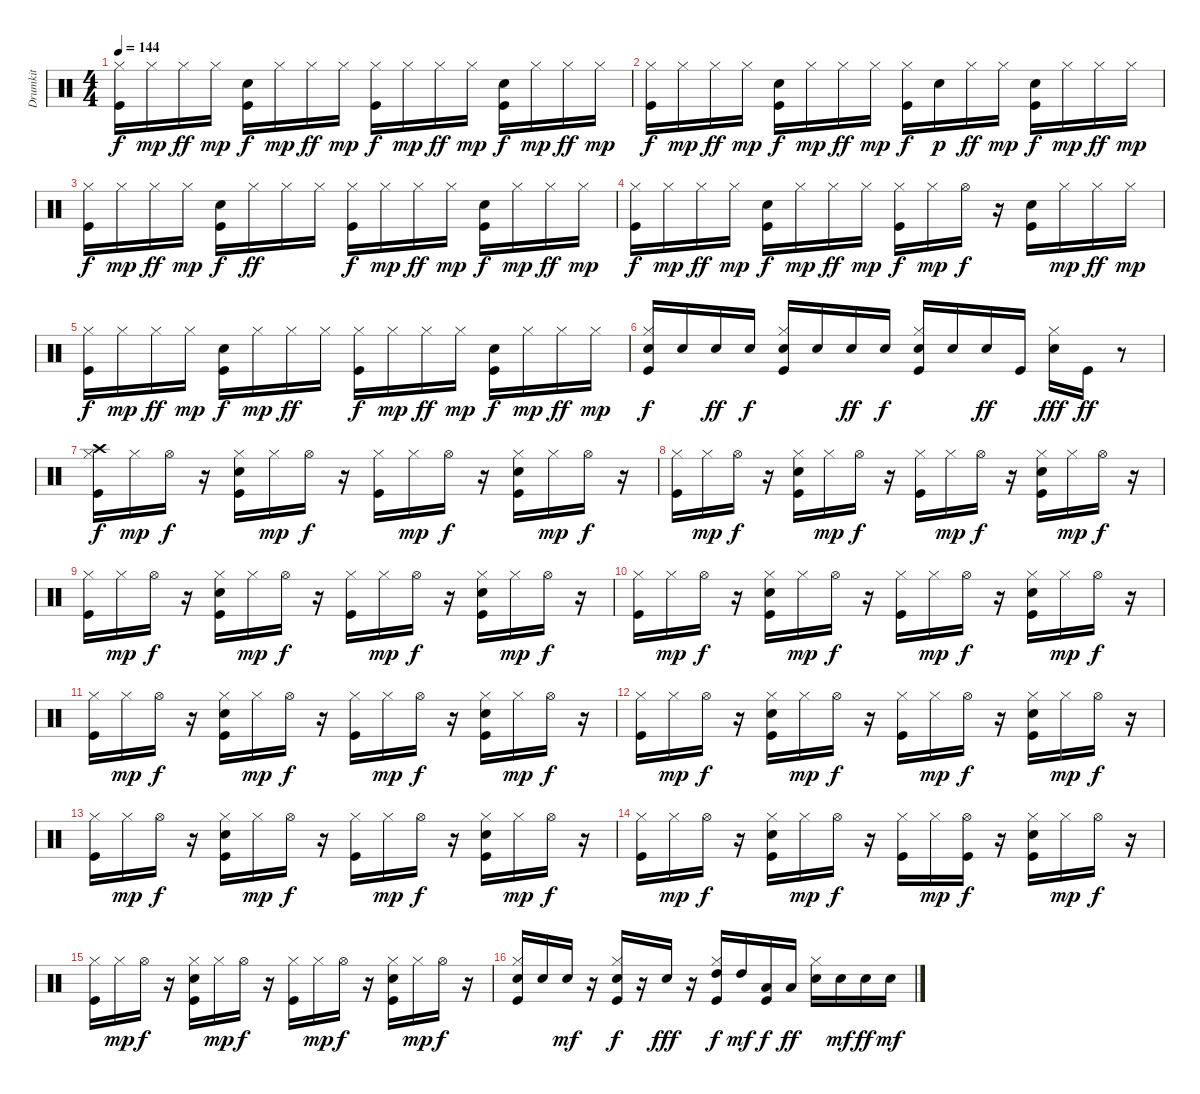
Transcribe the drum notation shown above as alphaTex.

\track ("Drumkit" "Drumkit") {instrument percussion}
\staff {score}
\articulation defaults
\ts (4 4)
\tempo 144
\clef neutral
\ks c
("Kick (hit)" "Hi-Hat (closed)").16{dy f} "Hi-Hat (closed)".16{dy mp} "Hi-Hat (closed)".16{dy ff} "Hi-Hat (closed)".16{dy mp} ("Kick (hit)" "Snare (hit) 2").16{dy f} "Hi-Hat (closed)".16{dy mp} "Hi-Hat (closed)".16{dy ff} "Hi-Hat (closed)".16{dy mp} ("Kick (hit)" "Hi-Hat (closed)").16{dy f} "Hi-Hat (closed)".16{dy mp} "Hi-Hat (closed)".16{dy ff} "Hi-Hat (closed)".16{dy mp} ("Kick (hit)" "Snare (hit) 2").16{dy f} "Hi-Hat (closed)".16{dy mp} "Hi-Hat (closed)".16{dy ff} "Hi-Hat (closed)".16{dy mp} |
("Kick (hit)" "Hi-Hat (closed)").16{dy f} "Hi-Hat (closed)".16{dy mp} "Hi-Hat (closed)".16{dy ff} "Hi-Hat (closed)".16{dy mp} ("Kick (hit)" "Snare (hit) 2").16{dy f} "Hi-Hat (closed)".16{dy mp} "Hi-Hat (closed)".16{dy ff} "Hi-Hat (closed)".16{dy mp} ("Kick (hit)" "Hi-Hat (closed)").16{dy f} "Snare (hit) 2".16{dy p} "Hi-Hat (closed)".16{dy ff} "Hi-Hat (closed)".16{dy mp} ("Kick (hit)" "Snare (hit) 2").16{dy f} "Hi-Hat (closed)".16{dy mp} "Hi-Hat (closed)".16{dy ff} "Hi-Hat (closed)".16{dy mp} |
("Kick (hit)" "Hi-Hat (closed)").16{dy f} "Hi-Hat (closed)".16{dy mp} "Hi-Hat (closed)".16{dy ff} "Hi-Hat (closed)".16{dy mp} ("Kick (hit)" "Snare (hit) 2").16{dy f} "Hi-Hat (closed)".16{dy ff} "Hi-Hat (closed)".16 "Hi-Hat (closed)".16 ("Kick (hit)" "Hi-Hat (closed)").16{dy f} "Hi-Hat (closed)".16{dy mp} "Hi-Hat (closed)".16{dy ff} "Hi-Hat (closed)".16{dy mp} ("Kick (hit)" "Snare (hit) 2").16{dy f} "Hi-Hat (closed)".16{dy mp} "Hi-Hat (closed)".16{dy ff} "Hi-Hat (closed)".16{dy mp} |
("Kick (hit)" "Hi-Hat (closed)").16{dy f} "Hi-Hat (closed)".16{dy mp} "Hi-Hat (closed)".16{dy ff} "Hi-Hat (closed)".16{dy mp} ("Kick (hit)" "Snare (hit) 2").16{dy f} "Hi-Hat (closed)".16{dy mp} "Hi-Hat (closed)".16{dy ff} "Hi-Hat (closed)".16{dy mp} ("Kick (hit)" "Hi-Hat (closed)").16{dy f} "Hi-Hat (closed)".16{dy mp} "Hi-Hat (open)".16{dy f} r.16 ("Kick (hit)" "Snare (hit) 2").16 "Hi-Hat (closed)".16{dy mp} "Hi-Hat (closed)".16{dy ff} "Hi-Hat (closed)".16{dy mp} |
("Kick (hit)" "Hi-Hat (closed)").16{dy f} "Hi-Hat (closed)".16{dy mp} "Hi-Hat (closed)".16{dy ff} "Hi-Hat (closed)".16{dy mp} ("Kick (hit)" "Snare (hit) 2").16{dy f} "Hi-Hat (closed)".16{dy mp} "Hi-Hat (closed)".16{dy ff} "Hi-Hat (closed)".16 ("Kick (hit)" "Hi-Hat (closed)").16{dy f} "Hi-Hat (closed)".16{dy mp} "Hi-Hat (closed)".16{dy ff} "Hi-Hat (closed)".16{dy mp} ("Kick (hit)" "Snare (hit) 2").16{dy f} "Hi-Hat (closed)".16{dy mp} "Hi-Hat (closed)".16{dy ff} "Hi-Hat (closed)".16{dy mp} |
("Kick (hit)" "Snare (hit) 2" "Hi-Hat (closed)").16{dy f} "Snare (hit) 2".16 "Snare (hit) 2".16{dy ff} "Snare (hit) 2".16{dy f} ("Kick (hit)" "Snare (hit) 2" "Hi-Hat (closed)").16 "Snare (hit) 2".16 "Snare (hit) 2".16{dy ff} "Snare (hit) 2".16{dy f} ("Kick (hit)" "Snare (hit) 2" "Hi-Hat (closed)").16 "Snare (hit) 2".16 "Snare (hit) 2".16{dy ff} "Kick (hit)".16 ("Snare (hit) 2" "Hi-Hat (closed)").16{dy fff} "Kick (hit)".16{dy ff} r.8 |
("Kick (hit)" "Hi-Hat (closed)" "Crash high (hit)").16{dy f} "Hi-Hat (closed)".16{dy mp} "Hi-Hat (open)".16{dy f} r.16 ("Kick (hit)" "Snare (hit) 2" "Hi-Hat (closed)").16 "Hi-Hat (closed)".16{dy mp} "Hi-Hat (open)".16{dy f} r.16 ("Kick (hit)" "Hi-Hat (closed)").16 "Hi-Hat (closed)".16{dy mp} "Hi-Hat (open)".16{dy f} r.16 ("Kick (hit)" "Snare (hit) 2" "Hi-Hat (closed)").16 "Hi-Hat (closed)".16{dy mp} "Hi-Hat (open)".16{dy f} r.16 |
("Kick (hit)" "Hi-Hat (closed)").16 "Hi-Hat (closed)".16{dy mp} "Hi-Hat (open)".16{dy f} r.16 ("Kick (hit)" "Snare (hit) 2" "Hi-Hat (closed)").16 "Hi-Hat (closed)".16{dy mp} "Hi-Hat (open)".16{dy f} r.16 ("Kick (hit)" "Hi-Hat (closed)").16 "Hi-Hat (closed)".16{dy mp} "Hi-Hat (open)".16{dy f} r.16 ("Kick (hit)" "Snare (hit) 2" "Hi-Hat (closed)").16 "Hi-Hat (closed)".16{dy mp} "Hi-Hat (open)".16{dy f} r.16 |
("Kick (hit)" "Hi-Hat (closed)").16 "Hi-Hat (closed)".16{dy mp} "Hi-Hat (open)".16{dy f} r.16 ("Kick (hit)" "Snare (hit) 2" "Hi-Hat (closed)").16 "Hi-Hat (closed)".16{dy mp} "Hi-Hat (open)".16{dy f} r.16 ("Kick (hit)" "Hi-Hat (closed)").16 "Hi-Hat (closed)".16{dy mp} "Hi-Hat (open)".16{dy f} r.16 ("Kick (hit)" "Snare (hit) 2" "Hi-Hat (closed)").16 "Hi-Hat (closed)".16{dy mp} "Hi-Hat (open)".16{dy f} r.16 |
("Kick (hit)" "Hi-Hat (closed)").16 "Hi-Hat (closed)".16{dy mp} "Hi-Hat (open)".16{dy f} r.16 ("Kick (hit)" "Snare (hit) 2" "Hi-Hat (closed)").16 "Hi-Hat (closed)".16{dy mp} "Hi-Hat (open)".16{dy f} r.16 ("Kick (hit)" "Hi-Hat (closed)").16 "Hi-Hat (closed)".16{dy mp} "Hi-Hat (open)".16{dy f} r.16 ("Kick (hit)" "Snare (hit) 2" "Hi-Hat (closed)").16 "Hi-Hat (closed)".16{dy mp} "Hi-Hat (open)".16{dy f} r.16 |
("Kick (hit)" "Hi-Hat (closed)").16 "Hi-Hat (closed)".16{dy mp} "Hi-Hat (open)".16{dy f} r.16 ("Kick (hit)" "Snare (hit) 2" "Hi-Hat (closed)").16 "Hi-Hat (closed)".16{dy mp} "Hi-Hat (open)".16{dy f} r.16 ("Kick (hit)" "Hi-Hat (closed)").16 "Hi-Hat (closed)".16{dy mp} "Hi-Hat (open)".16{dy f} r.16 ("Kick (hit)" "Snare (hit) 2" "Hi-Hat (closed)").16 "Hi-Hat (closed)".16{dy mp} "Hi-Hat (open)".16{dy f} r.16 |
("Kick (hit)" "Hi-Hat (closed)").16 "Hi-Hat (closed)".16{dy mp} "Hi-Hat (open)".16{dy f} r.16 ("Kick (hit)" "Snare (hit) 2" "Hi-Hat (closed)").16 "Hi-Hat (closed)".16{dy mp} "Hi-Hat (open)".16{dy f} r.16 ("Kick (hit)" "Hi-Hat (closed)").16 "Hi-Hat (closed)".16{dy mp} "Hi-Hat (open)".16{dy f} r.16 ("Kick (hit)" "Snare (hit) 2" "Hi-Hat (closed)").16 "Hi-Hat (closed)".16{dy mp} "Hi-Hat (open)".16{dy f} r.16 |
("Kick (hit)" "Hi-Hat (closed)").16 "Hi-Hat (closed)".16{dy mp} "Hi-Hat (open)".16{dy f} r.16 ("Kick (hit)" "Snare (hit) 2" "Hi-Hat (closed)").16 "Hi-Hat (closed)".16{dy mp} "Hi-Hat (open)".16{dy f} r.16 ("Kick (hit)" "Hi-Hat (closed)").16 "Hi-Hat (closed)".16{dy mp} "Hi-Hat (open)".16{dy f} r.16 ("Kick (hit)" "Snare (hit) 2" "Hi-Hat (closed)").16 "Hi-Hat (closed)".16{dy mp} "Hi-Hat (open)".16{dy f} r.16 |
("Kick (hit)" "Hi-Hat (closed)").16 "Hi-Hat (closed)".16{dy mp} "Hi-Hat (open)".16{dy f} r.16 ("Kick (hit)" "Snare (hit) 2" "Hi-Hat (closed)").16 "Hi-Hat (closed)".16{dy mp} "Hi-Hat (open)".16{dy f} r.16 ("Kick (hit)" "Hi-Hat (closed)").16 "Hi-Hat (closed)".16{dy mp} ("Kick (hit)" "Hi-Hat (open)").16{dy f} r.16 ("Kick (hit)" "Snare (hit) 2" "Hi-Hat (closed)").16 "Hi-Hat (closed)".16{dy mp} "Hi-Hat (open)".16{dy f} r.16 |
("Kick (hit)" "Hi-Hat (closed)").16 "Hi-Hat (closed)".16{dy mp} "Hi-Hat (open)".16{dy f} r.16 ("Kick (hit)" "Snare (hit) 2" "Hi-Hat (closed)").16 "Hi-Hat (closed)".16{dy mp} "Hi-Hat (open)".16{dy f} r.16 ("Kick (hit)" "Hi-Hat (closed)").16 "Hi-Hat (closed)".16{dy mp} "Hi-Hat (open)".16{dy f} r.16 ("Kick (hit)" "Snare (hit) 2" "Hi-Hat (closed)").16 "Hi-Hat (closed)".16{dy mp} "Hi-Hat (open)".16{dy f} r.16 |
("Kick (hit)" "Snare (hit) 2" "Hi-Hat (closed)").16 "Snare (hit) 2".16 "Snare (hit) 2".16{dy mf} r.16 ("Kick (hit)" "Snare (hit) 2" "Hi-Hat (closed)").16{dy f} r.16 "Snare (hit) 2".16{dy fff} r.16 ("Kick (hit)" "Hi-Hat (closed)" "High Tom (hit)").16{dy f} "High Tom (hit)".16{dy mf} ("Kick (hit)" "Low Tom (hit)").16{dy f} "Low Floor Tom (hit)".16{dy ff} ("Snare (hit) 2" "Hi-Hat (closed)").16 "Snare (hit) 2".16{dy mf} "Snare (hit) 2".16{dy ff} "Snare (hit) 2".16{dy mf}
